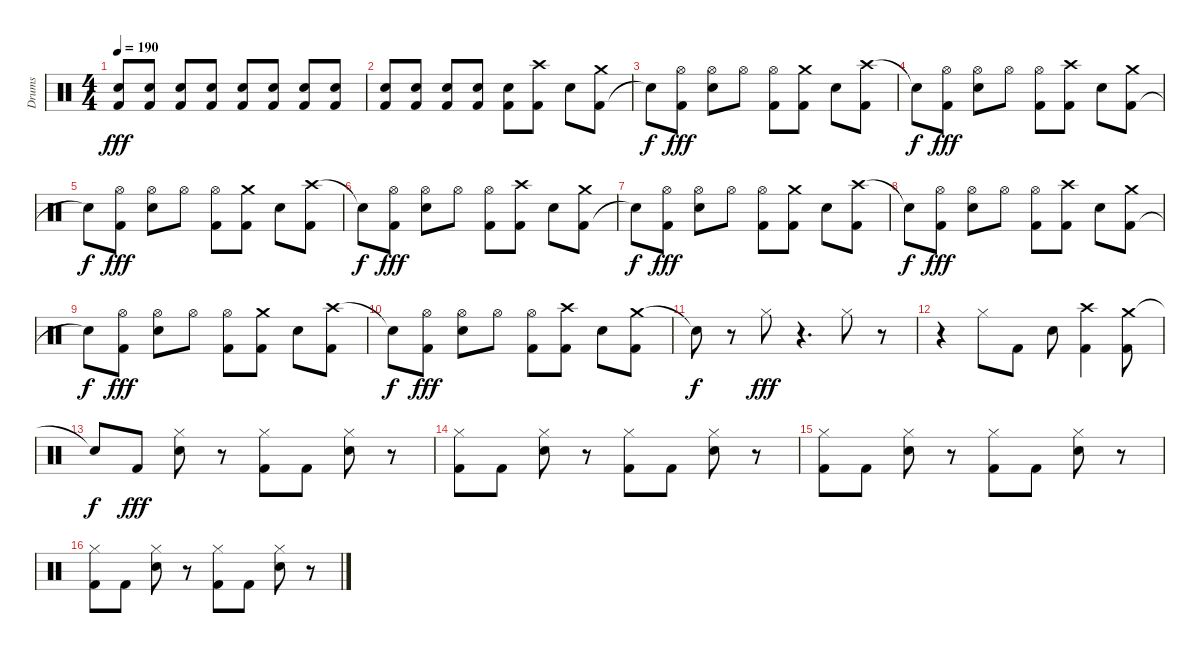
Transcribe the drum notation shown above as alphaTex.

\track ("Drums" "Drums") {instrument percussion}
\staff {score}
\articulation defaults
\ts (4 4)
\tempo 190
\clef neutral
\ks c
("Kick (hit) 2" "Electric Snare (hit)").8{dy fff} ("Kick (hit) 2" "Electric Snare (hit)").8 ("Kick (hit) 2" "Electric Snare (hit)").8 ("Kick (hit) 2" "Electric Snare (hit)").8 ("Kick (hit) 2" "Electric Snare (hit)").8 ("Kick (hit) 2" "Electric Snare (hit)").8 ("Kick (hit) 2" "Electric Snare (hit)").8 ("Kick (hit) 2" "Electric Snare (hit)").8 |
("Kick (hit) 2" "Electric Snare (hit)").8 ("Kick (hit) 2" "Electric Snare (hit)").8 ("Kick (hit) 2" "Electric Snare (hit)").8 ("Kick (hit) 2" "Electric Snare (hit)").8 ("Kick (hit) 2" "Electric Snare (hit)").8 ("Kick (hit) 2" "Crash high (hit)").8 "Electric Snare (hit)".8 ("Kick (hit) 2" "Crash medium (hit)").8 |
"Snare (hit)"{t}.8{dy f} ("Hi-Hat (open)" "Kick (hit) 2").8{dy fff} ("Hi-Hat (open)" "Hand Clap (hit)").8 "Hi-Hat (open)".8 ("Hi-Hat (open)" "Kick (hit) 2").8 ("Crash medium (hit)" "Kick (hit) 2").8 "Electric Snare (hit)".8 ("Crash high (hit)" "Kick (hit) 2").8 |
"Snare (hit)"{t}.8{dy f} ("Hi-Hat (open)" "Kick (hit) 2").8{dy fff} ("Hi-Hat (open)" "Electric Snare (hit)").8 "Hi-Hat (open)".8 ("Hi-Hat (open)" "Kick (hit) 2").8 ("Kick (hit) 2" "Crash high (hit)").8 "Electric Snare (hit)".8 ("Kick (hit) 2" "Crash medium (hit)").8 |
"Snare (hit)"{t}.8{dy f} ("Hi-Hat (open)" "Kick (hit) 2").8{dy fff} ("Hi-Hat (open)" "Electric Snare (hit)").8 "Hi-Hat (open)".8 ("Hi-Hat (open)" "Kick (hit) 2").8 ("Crash medium (hit)" "Kick (hit) 2").8 "Electric Snare (hit)".8 ("Crash high (hit)" "Kick (hit) 2").8 |
"Snare (hit)"{t}.8{dy f} ("Hi-Hat (open)" "Kick (hit) 2").8{dy fff} ("Hi-Hat (open)" "Electric Snare (hit)").8 "Hi-Hat (open)".8 ("Hi-Hat (open)" "Kick (hit) 2").8 ("Kick (hit) 2" "Crash high (hit)").8 "Electric Snare (hit)".8 ("Kick (hit) 2" "Crash medium (hit)").8 |
"Snare (hit)"{t}.8{dy f} ("Hi-Hat (open)" "Kick (hit) 2").8{dy fff} ("Hi-Hat (open)" "Electric Snare (hit)").8 "Hi-Hat (open)".8 ("Hi-Hat (open)" "Kick (hit) 2").8 ("Crash medium (hit)" "Kick (hit) 2").8 "Electric Snare (hit)".8 ("Crash high (hit)" "Kick (hit) 2").8 |
"Snare (hit)"{t}.8{dy f} ("Hi-Hat (open)" "Kick (hit) 2").8{dy fff} ("Hi-Hat (open)" "Electric Snare (hit)").8 "Hi-Hat (open)".8 ("Hi-Hat (open)" "Kick (hit) 2").8 ("Kick (hit) 2" "Crash high (hit)").8 "Electric Snare (hit)".8 ("Kick (hit) 2" "Crash medium (hit)").8 |
"Snare (hit)"{t}.8{dy f} ("Hi-Hat (open)" "Kick (hit) 2").8{dy fff} ("Hi-Hat (open)" "Electric Snare (hit)").8 "Hi-Hat (open)".8 ("Hi-Hat (open)" "Kick (hit) 2").8 ("Crash medium (hit)" "Kick (hit) 2").8 "Electric Snare (hit)".8 ("Crash high (hit)" "Kick (hit) 2").8 |
"Snare (hit)"{t}.8{dy f} ("Hi-Hat (open)" "Kick (hit) 2").8{dy fff} ("Hi-Hat (open)" "Electric Snare (hit)").8 "Hi-Hat (open)".8 ("Hi-Hat (open)" "Kick (hit) 2").8 ("Crash high (hit)" "Kick (hit) 2").8 "Electric Snare (hit)".8 ("Crash medium (hit)" "Kick (hit) 2").8 |
"Snare (hit)"{t}.8{dy f} r.8 "Hi-Hat (closed)".8{dy fff} r.4{d} "Hi-Hat (closed)".8 r.8 |
r.4 "Hi-Hat (closed)".8 "Kick (hit) 2".8 "Electric Snare (hit)".8 ("Crash high (hit)" "Kick (hit) 2").4 ("Crash medium (hit)" "Kick (hit) 2").8 |
"Snare (hit)"{t}.8{dy f} "Kick (hit) 2".8{dy fff} ("Hi-Hat (closed)" "Electric Snare (hit)").8 r.8 ("Hi-Hat (closed)" "Kick (hit) 2").8 "Kick (hit) 2".8 ("Hi-Hat (closed)" "Electric Snare (hit)").8 r.8 |
("Hi-Hat (closed)" "Kick (hit) 2").8 "Kick (hit) 2".8 ("Hi-Hat (closed)" "Electric Snare (hit)").8 r.8 ("Hi-Hat (closed)" "Kick (hit) 2").8 "Kick (hit) 2".8 ("Hi-Hat (closed)" "Electric Snare (hit)").8 r.8 |
("Hi-Hat (closed)" "Kick (hit) 2").8 "Kick (hit) 2".8 ("Hi-Hat (closed)" "Electric Snare (hit)").8 r.8 ("Hi-Hat (closed)" "Kick (hit) 2").8 "Kick (hit) 2".8 ("Hi-Hat (closed)" "Electric Snare (hit)").8 r.8 |
("Hi-Hat (closed)" "Kick (hit) 2").8 "Kick (hit) 2".8 ("Hi-Hat (closed)" "Electric Snare (hit)").8 r.8 ("Hi-Hat (closed)" "Kick (hit) 2").8 "Kick (hit) 2".8 ("Hi-Hat (closed)" "Electric Snare (hit)").8 r.8
